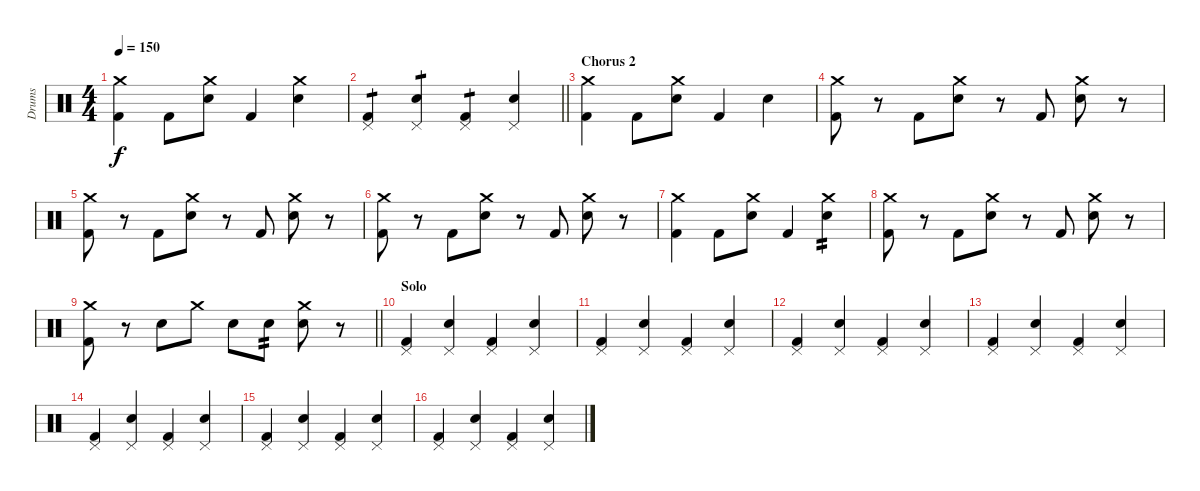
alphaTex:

\track ("Drums" "Drums") {instrument percussion}
\staff {score}
\articulation defaults
\ts (4 4)
\tempo 150
\clef neutral
\ks c
("Kick (hit) 2" "Crash medium (hit)").4{dy f} "Kick (hit) 2".8 ("Snare (hit) 2" "Crash medium (hit)").8 "Kick (hit) 2".4 ("Snare (hit) 2" "Crash medium (hit)").4 |
\barLineRight lightlight
("Kick (hit) 2" "Pedal Hi-Hat (hit)").4{tp 1} ("Snare (hit) 2" "Pedal Hi-Hat (hit)").4{tp 1} ("Kick (hit) 2" "Pedal Hi-Hat (hit)").4{tp 1} ("Snare (hit) 2" "Pedal Hi-Hat (hit)").4 |
\section ("" "Chorus 2")
("Kick (hit) 2" "Crash medium (hit)").4 "Kick (hit) 2".8 ("Snare (hit) 2" "Crash medium (hit)").8 "Kick (hit) 2".4 "Snare (hit) 2".4 |
("Kick (hit) 2" "Crash medium (hit)").8 r.8 "Kick (hit) 2".8 ("Snare (hit) 2" "Crash medium (hit)").8 r.8 "Kick (hit) 2".8 ("Snare (hit) 2" "Crash medium (hit)").8 r.8 |
("Kick (hit) 2" "Crash medium (hit)").8 r.8 "Kick (hit) 2".8 ("Snare (hit) 2" "Crash medium (hit)").8 r.8 "Kick (hit) 2".8 ("Snare (hit) 2" "Crash medium (hit)").8 r.8 |
("Kick (hit) 2" "Crash medium (hit)").8 r.8 "Kick (hit) 2".8 ("Snare (hit) 2" "Crash medium (hit)").8 r.8 "Kick (hit) 2".8 ("Snare (hit) 2" "Crash medium (hit)").8 r.8 |
("Kick (hit) 2" "Crash medium (hit)").4 "Kick (hit) 2".8 ("Snare (hit) 2" "Crash medium (hit)").8 "Kick (hit) 2".4 ("Snare (hit) 2" "Crash medium (hit)").4{tp 2} |
("Kick (hit) 2" "Crash medium (hit)").8 r.8 "Kick (hit) 2".8 ("Snare (hit) 2" "Crash medium (hit)").8 r.8 "Kick (hit) 2".8 ("Snare (hit) 2" "Crash medium (hit)").8 r.8 |
\barLineRight lightlight
("Kick (hit) 2" "Crash medium (hit)").8 r.8 "Snare (hit) 2".8 "Crash medium (hit)".8 "Snare (hit) 2".8 "Snare (hit) 2".8{tp 2} ("Snare (hit) 2" "Crash medium (hit)").8 r.8 |
\section ("" "Solo")
("Kick (hit) 2" "Pedal Hi-Hat (hit)").4 ("Snare (hit) 2" "Pedal Hi-Hat (hit)").4 ("Kick (hit) 2" "Pedal Hi-Hat (hit)").4 ("Snare (hit) 2" "Pedal Hi-Hat (hit)").4 |
("Kick (hit) 2" "Pedal Hi-Hat (hit)").4 ("Snare (hit) 2" "Pedal Hi-Hat (hit)").4 ("Kick (hit) 2" "Pedal Hi-Hat (hit)").4 ("Snare (hit) 2" "Pedal Hi-Hat (hit)").4 |
("Kick (hit) 2" "Pedal Hi-Hat (hit)").4 ("Snare (hit) 2" "Pedal Hi-Hat (hit)").4 ("Kick (hit) 2" "Pedal Hi-Hat (hit)").4 ("Snare (hit) 2" "Pedal Hi-Hat (hit)").4 |
("Kick (hit) 2" "Pedal Hi-Hat (hit)").4 ("Snare (hit) 2" "Pedal Hi-Hat (hit)").4 ("Kick (hit) 2" "Pedal Hi-Hat (hit)").4 ("Snare (hit) 2" "Pedal Hi-Hat (hit)").4 |
("Kick (hit) 2" "Pedal Hi-Hat (hit)").4 ("Snare (hit) 2" "Pedal Hi-Hat (hit)").4 ("Kick (hit) 2" "Pedal Hi-Hat (hit)").4 ("Snare (hit) 2" "Pedal Hi-Hat (hit)").4 |
("Kick (hit) 2" "Pedal Hi-Hat (hit)").4 ("Snare (hit) 2" "Pedal Hi-Hat (hit)").4 ("Kick (hit) 2" "Pedal Hi-Hat (hit)").4 ("Snare (hit) 2" "Pedal Hi-Hat (hit)").4 |
("Kick (hit) 2" "Pedal Hi-Hat (hit)").4 ("Snare (hit) 2" "Pedal Hi-Hat (hit)").4 ("Kick (hit) 2" "Pedal Hi-Hat (hit)").4 ("Snare (hit) 2" "Pedal Hi-Hat (hit)").4
